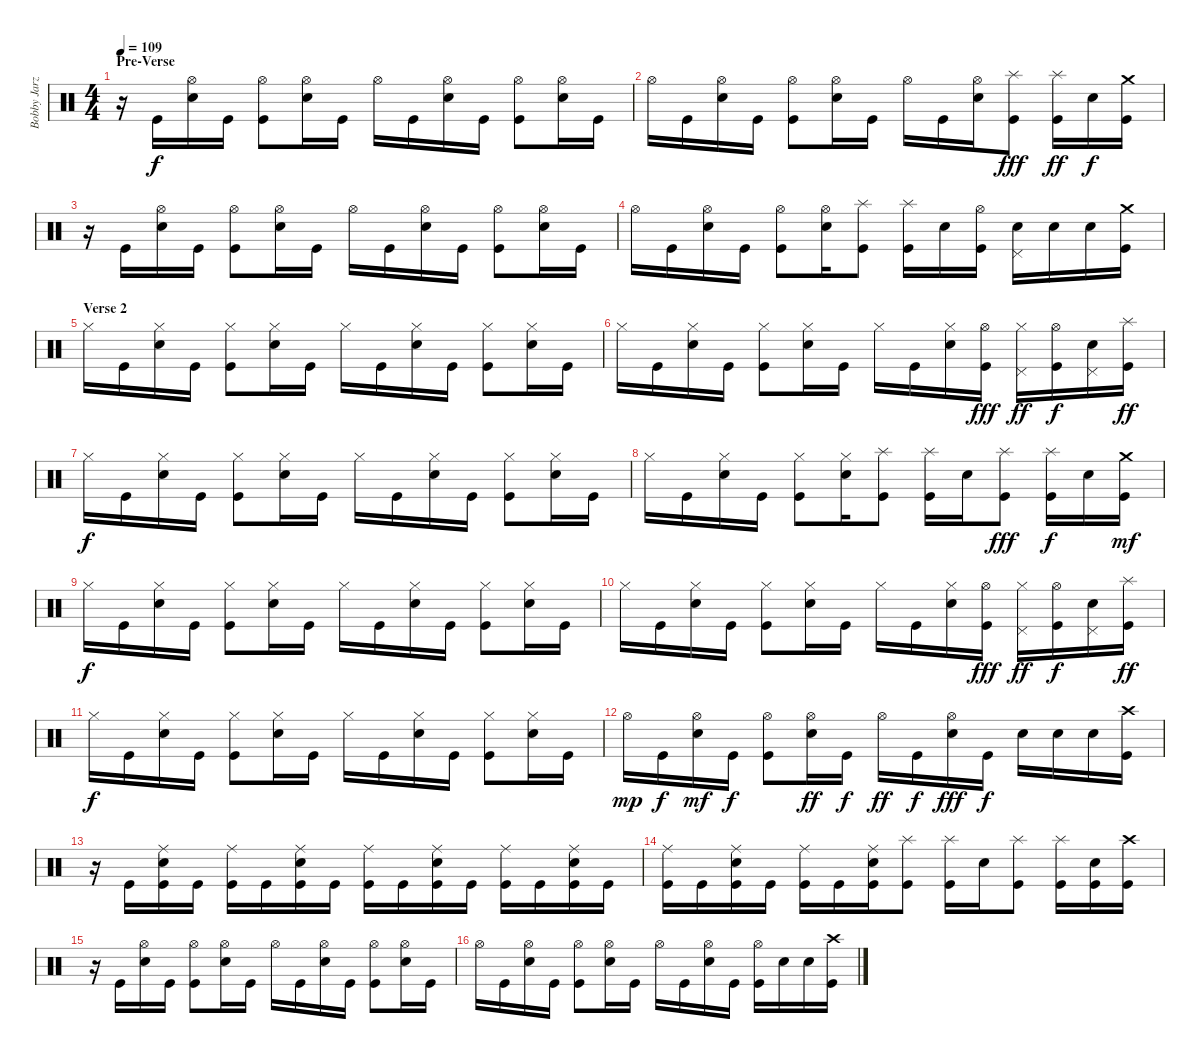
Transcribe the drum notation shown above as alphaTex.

\track ("Bobby Jarzombek" "Bobby Jarz") {instrument percussion}
\staff {score}
\articulation defaults
\ts (4 4)
\section ("" "Pre-Verse")
\tempo 109
\clef neutral
\ks c
r.16{dy f} "Kick (hit)".16 ("Hi-Hat (open)" "Electric Snare (hit)").16 "Kick (hit)".16 ("Hi-Hat (open)" "Kick (hit)").8 ("Hi-Hat (open)" "Electric Snare (hit)").16 "Kick (hit)".16 "Hi-Hat (open)".16 "Kick (hit)".16 ("Hi-Hat (open)" "Electric Snare (hit)").16 "Kick (hit)".16 ("Hi-Hat (open)" "Kick (hit)").8 ("Hi-Hat (open)" "Electric Snare (hit)").16 "Kick (hit)".16 |
"Hi-Hat (open)".16 "Kick (hit)".16 ("Hi-Hat (open)" "Electric Snare (hit)").16 "Kick (hit)".16 ("Hi-Hat (open)" "Kick (hit)").8 ("Hi-Hat (open)" "Electric Snare (hit)").16 "Kick (hit)".16 "Hi-Hat (open)".16 "Kick (hit)".16 ("Hi-Hat (open)" "Electric Snare (hit)").16 ("Splash (hit)" "Kick (hit)").8{dy fff} ("Splash (hit)" "Kick (hit)").16{dy ff} "Electric Snare (hit)".16{dy f} ("Crash medium (hit)" "Kick (hit)").16 |
r.16 "Kick (hit)".16 ("Hi-Hat (open)" "Electric Snare (hit)").16 "Kick (hit)".16 ("Hi-Hat (open)" "Kick (hit)").8 ("Hi-Hat (open)" "Electric Snare (hit)").16 "Kick (hit)".16 "Hi-Hat (open)".16 "Kick (hit)".16 ("Hi-Hat (open)" "Electric Snare (hit)").16 "Kick (hit)".16 ("Hi-Hat (open)" "Kick (hit)").8 ("Hi-Hat (open)" "Electric Snare (hit)").16 "Kick (hit)".16 |
"Hi-Hat (open)".16 "Kick (hit)".16 ("Hi-Hat (open)" "Electric Snare (hit)").16 "Kick (hit)".16 ("Hi-Hat (open)" "Kick (hit)").8 ("Hi-Hat (open)" "Electric Snare (hit)").16 ("Splash (hit)" "Kick (hit)").8 ("Splash (hit)" "Kick (hit)").16 "Electric Snare (hit)".16 ("Hi-Hat (open)" "Kick (hit)").16 ("Electric Snare (hit)" "Pedal Hi-Hat (hit)").16 "Electric Snare (hit)".16 "Electric Snare (hit)".16 ("Crash medium (hit)" "Kick (hit)").16 |
\section ("" "Verse 2")
"Hi-Hat (closed)".16 "Kick (hit)".16 ("Hi-Hat (closed)" "Electric Snare (hit)").16 "Kick (hit)".16 ("Hi-Hat (closed)" "Kick (hit)").8 ("Hi-Hat (closed)" "Electric Snare (hit)").16 "Kick (hit)".16 "Hi-Hat (closed)".16 "Kick (hit)".16 ("Hi-Hat (closed)" "Electric Snare (hit)").16 "Kick (hit)".16 ("Hi-Hat (closed)" "Kick (hit)").8 ("Hi-Hat (closed)" "Electric Snare (hit)").16 "Kick (hit)".16 |
"Hi-Hat (closed)".16 "Kick (hit)".16 ("Hi-Hat (closed)" "Electric Snare (hit)").16 "Kick (hit)".16 ("Hi-Hat (closed)" "Kick (hit)").8 ("Hi-Hat (closed)" "Electric Snare (hit)").16 "Kick (hit)".16 "Hi-Hat (closed)".16 "Kick (hit)".16 ("Hi-Hat (closed)" "Electric Snare (hit)").16 ("Hi-Hat (open)" "Kick (hit)").16{dy fff} ("Hi-Hat (closed)" "Pedal Hi-Hat (hit)").16{dy ff} ("Hi-Hat (open)" "Kick (hit)").16{dy f} ("Pedal Hi-Hat (hit)" "Electric Snare (hit)").16 ("Splash (hit)" "Kick (hit)").16{dy ff} |
"Hi-Hat (closed)".16{dy f} "Kick (hit)".16 ("Hi-Hat (closed)" "Electric Snare (hit)").16 "Kick (hit)".16 ("Hi-Hat (closed)" "Kick (hit)").8 ("Hi-Hat (closed)" "Electric Snare (hit)").16 "Kick (hit)".16 "Hi-Hat (closed)".16 "Kick (hit)".16 ("Hi-Hat (closed)" "Electric Snare (hit)").16 "Kick (hit)".16 ("Hi-Hat (closed)" "Kick (hit)").8 ("Hi-Hat (closed)" "Electric Snare (hit)").16 "Kick (hit)".16 |
"Hi-Hat (closed)".16 "Kick (hit)".16 ("Hi-Hat (closed)" "Electric Snare (hit)").16 "Kick (hit)".16 ("Hi-Hat (closed)" "Kick (hit)").8 ("Hi-Hat (closed)" "Electric Snare (hit)").16 ("Splash (hit)" "Kick (hit)").8 ("Splash (hit)" "Kick (hit)").16 "Electric Snare (hit)".16 ("Splash (hit)" "Kick (hit)").8{dy fff} ("Splash (hit)" "Kick (hit)").16{dy f} "Electric Snare (hit)".16 ("Crash medium (hit)" "Kick (hit)").16{dy mf} |
"Hi-Hat (closed)".16{dy f} "Kick (hit)".16 ("Hi-Hat (closed)" "Electric Snare (hit)").16 "Kick (hit)".16 ("Hi-Hat (closed)" "Kick (hit)").8 ("Hi-Hat (closed)" "Electric Snare (hit)").16 "Kick (hit)".16 "Hi-Hat (closed)".16 "Kick (hit)".16 ("Hi-Hat (closed)" "Electric Snare (hit)").16 "Kick (hit)".16 ("Hi-Hat (closed)" "Kick (hit)").8 ("Hi-Hat (closed)" "Electric Snare (hit)").16 "Kick (hit)".16 |
"Hi-Hat (closed)".16 "Kick (hit)".16 ("Hi-Hat (closed)" "Electric Snare (hit)").16 "Kick (hit)".16 ("Hi-Hat (closed)" "Kick (hit)").8 ("Hi-Hat (closed)" "Electric Snare (hit)").16 "Kick (hit)".16 "Hi-Hat (closed)".16 "Kick (hit)".16 ("Hi-Hat (closed)" "Electric Snare (hit)").16 ("Hi-Hat (open)" "Kick (hit)").16{dy fff} ("Hi-Hat (closed)" "Pedal Hi-Hat (hit)").16{dy ff} ("Hi-Hat (open)" "Kick (hit)").16{dy f} ("Pedal Hi-Hat (hit)" "Electric Snare (hit)").16 ("Splash (hit)" "Kick (hit)").16{dy ff} |
"Hi-Hat (closed)".16{dy f} "Kick (hit)".16 ("Hi-Hat (closed)" "Electric Snare (hit)").16 "Kick (hit)".16 ("Hi-Hat (closed)" "Kick (hit)").8 ("Hi-Hat (closed)" "Electric Snare (hit)").16 "Kick (hit)".16 "Hi-Hat (closed)".16 "Kick (hit)".16 ("Hi-Hat (closed)" "Electric Snare (hit)").16 "Kick (hit)".16 ("Hi-Hat (closed)" "Kick (hit)").8 ("Hi-Hat (closed)" "Electric Snare (hit)").16 "Kick (hit)".16 |
"Hi-Hat (open)".16{dy mp} "Kick (hit)".16{dy f} ("Hi-Hat (open)" "Electric Snare (hit)").16{dy mf} "Kick (hit)".16{dy f} ("Hi-Hat (open)" "Kick (hit)").8 ("Hi-Hat (open)" "Electric Snare (hit)").16{dy ff} "Kick (hit)".16{dy f} "Hi-Hat (open)".16{dy ff} "Kick (hit)".16{dy f} ("Hi-Hat (open)" "Electric Snare (hit)").16{dy fff} "Kick (hit)".16{dy f} "Electric Snare (hit)".16 "Electric Snare (hit)".16 "Electric Snare (hit)".16 ("Crash high (hit)" "Kick (hit)").16 |
r.16 "Kick (hit)".16 ("Ride (middle)" "Electric Snare (hit)" "Kick (hit)").16 "Kick (hit)".16 ("Ride (middle)" "Kick (hit)").16 "Kick (hit)".16 ("Ride (middle)" "Electric Snare (hit)" "Kick (hit)").16 "Kick (hit)".16 ("Ride (middle)" "Kick (hit)").16 "Kick (hit)".16 ("Ride (middle)" "Electric Snare (hit)" "Kick (hit)").16 "Kick (hit)".16 ("Ride (middle)" "Kick (hit)").16 "Kick (hit)".16 ("Ride (middle)" "Electric Snare (hit)" "Kick (hit)").16 "Kick (hit)".16 |
("Ride (middle)" "Kick (hit)").16 "Kick (hit)".16 ("Ride (middle)" "Electric Snare (hit)" "Kick (hit)").16 "Kick (hit)".16 ("Ride (middle)" "Kick (hit)").16 "Kick (hit)".16 ("Ride (middle)" "Electric Snare (hit)" "Kick (hit)").16 ("Splash (hit)" "Kick (hit)").8 ("Splash (hit)" "Kick (hit)").16 "Electric Snare (hit)".16 ("Splash (hit)" "Kick (hit)").8 ("Splash (hit)" "Kick (hit)").16 ("Electric Snare (hit)" "Kick (hit)").16 ("Crash high (hit)" "Kick (hit)").16 |
r.16 "Kick (hit)".16 ("Hi-Hat (open)" "Electric Snare (hit)").16 "Kick (hit)".16 ("Hi-Hat (open)" "Kick (hit)").8 ("Hi-Hat (open)" "Electric Snare (hit)").16 "Kick (hit)".16 "Hi-Hat (open)".16 "Kick (hit)".16 ("Hi-Hat (open)" "Electric Snare (hit)").16 "Kick (hit)".16 ("Hi-Hat (open)" "Kick (hit)").8 ("Hi-Hat (open)" "Electric Snare (hit)").16 "Kick (hit)".16 |
"Hi-Hat (open)".16 "Kick (hit)".16 ("Hi-Hat (open)" "Electric Snare (hit)").16 "Kick (hit)".16 ("Hi-Hat (open)" "Kick (hit)").8 ("Hi-Hat (open)" "Electric Snare (hit)").16 "Kick (hit)".16 "Hi-Hat (open)".16 "Kick (hit)".16 ("Hi-Hat (open)" "Electric Snare (hit)").16 "Kick (hit)".16 ("Hi-Hat (open)" "Kick (hit)").16 "Electric Snare (hit)".16 "Electric Snare (hit)".16 ("Crash high (hit)" "Kick (hit)").16
